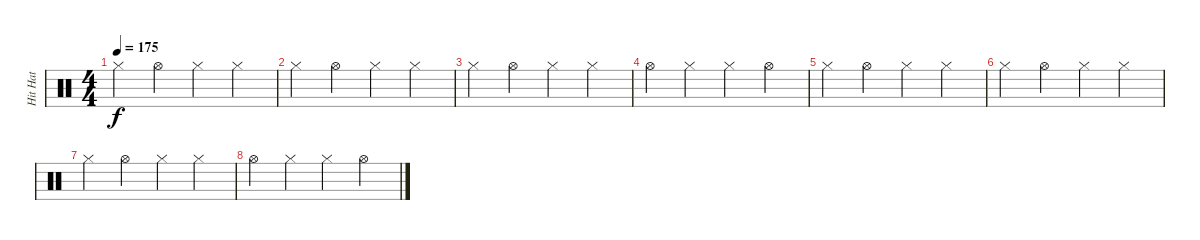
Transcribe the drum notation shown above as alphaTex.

\track ("Hit Hat" "Hit Hat") {instrument percussion}
\staff {score}
\articulation defaults
\ts (4 4)
\tempo 175
\clef neutral
\ks c "Hi-Hat (closed)".4{dy f} "Hi-Hat (open)".4 "Hi-Hat (closed)".4 "Hi-Hat (closed)".4
|
"Hi-Hat (closed)".4 "Hi-Hat (open)".4 "Hi-Hat (closed)".4 "Hi-Hat (closed)".4 |
"Hi-Hat (closed)".4 "Hi-Hat (open)".4 "Hi-Hat (closed)".4 "Hi-Hat (closed)".4 |
"Hi-Hat (open)".4 "Hi-Hat (closed)".4 "Hi-Hat (closed)".4 "Hi-Hat (open)".4 |
"Hi-Hat (closed)".4 "Hi-Hat (open)".4 "Hi-Hat (closed)".4 "Hi-Hat (closed)".4 |
"Hi-Hat (closed)".4 "Hi-Hat (open)".4 "Hi-Hat (closed)".4 "Hi-Hat (closed)".4 |
"Hi-Hat (closed)".4 "Hi-Hat (open)".4 "Hi-Hat (closed)".4 "Hi-Hat (closed)".4 |
"Hi-Hat (open)".4 "Hi-Hat (closed)".4 "Hi-Hat (closed)".4 "Hi-Hat (open)".4
